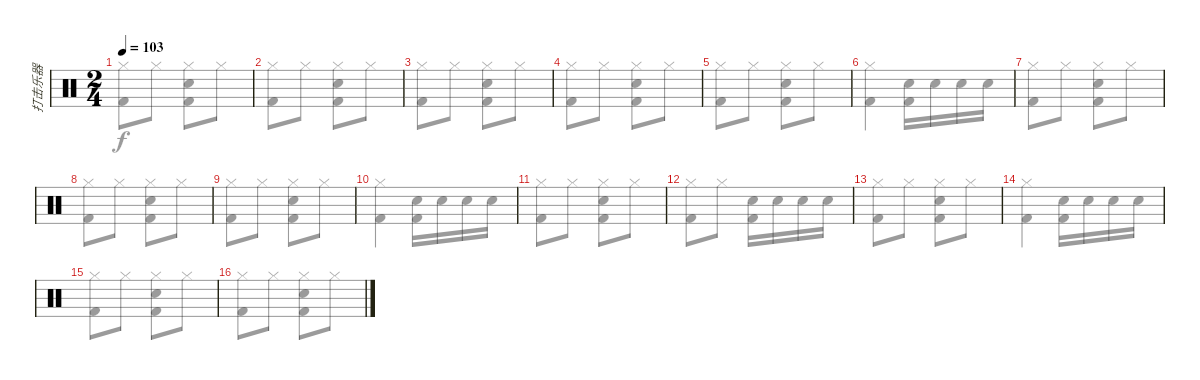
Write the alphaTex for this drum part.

\track ("打击乐器" "打击乐器") {instrument percussion bank 10}
\staff {score}
\articulation defaults
\voice
\ts (2 4)
\tempo 103
\clef neutral
\ks c
|
|
|
|
|
|
|
|
|
|
|
|
|
|
|
\voice
\clef neutral
\ks c
("Hi-Hat (closed)" "Kick (hit) 2").8{dy f} "Hi-Hat (closed)".8 ("Hi-Hat (closed)" "Electric Snare (hit)" "Kick (hit) 2").8 "Hi-Hat (closed)".8 |
("Hi-Hat (closed)" "Kick (hit) 2").8 "Hi-Hat (closed)".8 ("Hi-Hat (closed)" "Electric Snare (hit)" "Kick (hit) 2").8 "Hi-Hat (closed)".8 |
("Hi-Hat (closed)" "Kick (hit) 2").8 "Hi-Hat (closed)".8 ("Hi-Hat (closed)" "Electric Snare (hit)" "Kick (hit) 2").8 "Hi-Hat (closed)".8 |
("Hi-Hat (closed)" "Kick (hit) 2").8 "Hi-Hat (closed)".8 ("Hi-Hat (closed)" "Electric Snare (hit)" "Kick (hit) 2").8 "Hi-Hat (closed)".8 |
("Hi-Hat (closed)" "Kick (hit) 2").8 "Hi-Hat (closed)".8 ("Hi-Hat (closed)" "Electric Snare (hit)" "Kick (hit) 2").8 "Hi-Hat (closed)".8 |
("Hi-Hat (closed)" "Kick (hit) 2").4 ("Electric Snare (hit)" "Kick (hit) 2").16 "Electric Snare (hit)".16 "Electric Snare (hit)".16 "Electric Snare (hit)".16 |
("Hi-Hat (closed)" "Kick (hit) 2").8 "Hi-Hat (closed)".8 ("Hi-Hat (closed)" "Electric Snare (hit)" "Kick (hit) 2").8 "Hi-Hat (closed)".8 |
("Hi-Hat (closed)" "Kick (hit) 2").8 "Hi-Hat (closed)".8 ("Hi-Hat (closed)" "Electric Snare (hit)" "Kick (hit) 2").8 "Hi-Hat (closed)".8 |
("Hi-Hat (closed)" "Kick (hit) 2").8 "Hi-Hat (closed)".8 ("Hi-Hat (closed)" "Electric Snare (hit)" "Kick (hit) 2").8 "Hi-Hat (closed)".8 |
("Hi-Hat (closed)" "Kick (hit) 2").4 ("Electric Snare (hit)" "Kick (hit) 2").16 "Electric Snare (hit)".16 "Electric Snare (hit)".16 "Electric Snare (hit)".16 |
("Hi-Hat (closed)" "Kick (hit) 2").8 "Hi-Hat (closed)".8 ("Hi-Hat (closed)" "Electric Snare (hit)" "Kick (hit) 2").8 "Hi-Hat (closed)".8 |
("Hi-Hat (closed)" "Kick (hit) 2").8 "Hi-Hat (closed)".8 ("Electric Snare (hit)" "Kick (hit) 2").16 "Electric Snare (hit)".16 "Electric Snare (hit)".16 "Electric Snare (hit)".16 |
("Hi-Hat (closed)" "Kick (hit) 2").8 "Hi-Hat (closed)".8 ("Hi-Hat (closed)" "Electric Snare (hit)" "Kick (hit) 2").8 "Hi-Hat (closed)".8 |
("Hi-Hat (closed)" "Kick (hit) 2").4 ("Electric Snare (hit)" "Kick (hit) 2").16 "Electric Snare (hit)".16 "Electric Snare (hit)".16 "Electric Snare (hit)".16 |
("Hi-Hat (closed)" "Kick (hit) 2").8 "Hi-Hat (closed)".8 ("Hi-Hat (closed)" "Electric Snare (hit)" "Kick (hit) 2").8 "Hi-Hat (closed)".8 |
("Hi-Hat (closed)" "Kick (hit) 2").8 "Hi-Hat (closed)".8 ("Hi-Hat (closed)" "Electric Snare (hit)" "Kick (hit) 2").8 "Hi-Hat (closed)".8
